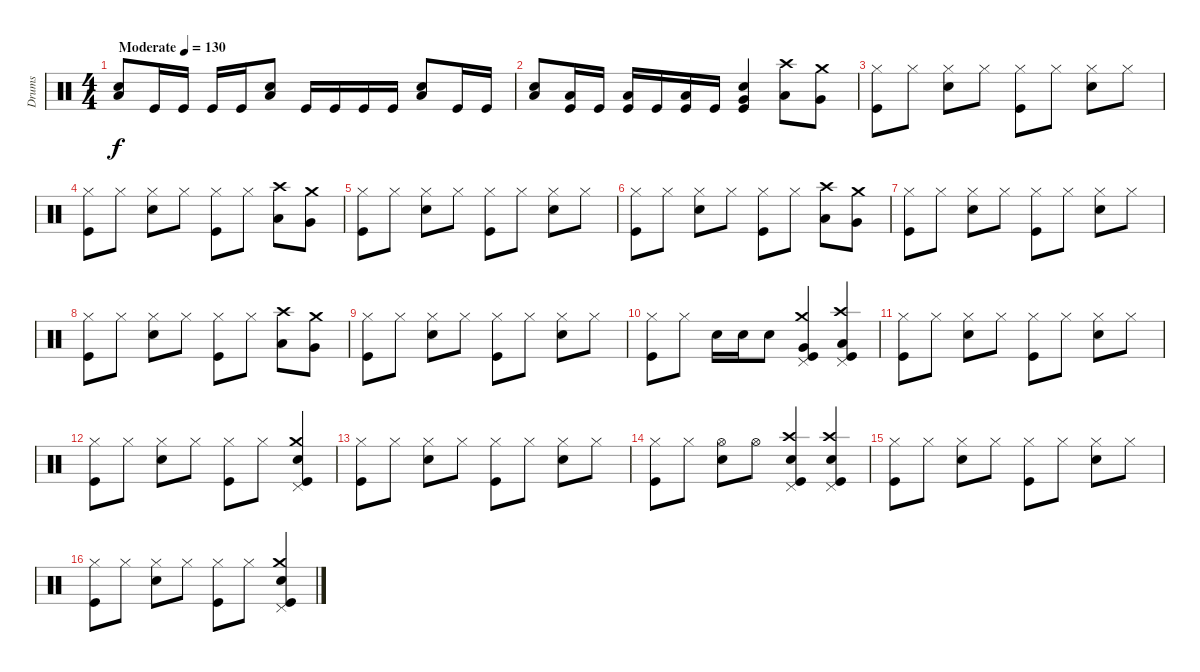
\track ("Drums" "Drums") {instrument percussion}
\staff {score}
\articulation defaults
\ts (4 4)
\tempo (130 "Moderate")
\clef neutral
\ks c
("Electric Snare (hit)" "Low Floor Tom (hit)").8{dy f} "Kick (hit)".16 "Kick (hit)".16 "Kick (hit)".16 "Kick (hit)".16 ("Electric Snare (hit)" "Low Floor Tom (hit)").8 "Kick (hit)".16 "Kick (hit)".16 "Kick (hit)".16 "Kick (hit)".16 ("Electric Snare (hit)" "Low Floor Tom (hit)").8 "Kick (hit)".16 "Kick (hit)".16 |
("Electric Snare (hit)" "Low Floor Tom (hit)").8 ("Low Floor Tom (hit)" "Kick (hit)").16 "Kick (hit)".16 ("Low Floor Tom (hit)" "Kick (hit)").16 "Kick (hit)".16 ("Low Floor Tom (hit)" "Kick (hit)").16 "Kick (hit)".16 ("Electric Snare (hit)" "Very Low Tom (hit)" "Kick (hit)").4 ("Crash high (hit)" "Low Floor Tom (hit)").8 ("Crash medium (hit)" "Very Low Tom (hit)").8 |
("Hi-Hat (closed)" "Kick (hit)").8 "Hi-Hat (closed)".8 ("Hi-Hat (closed)" "Electric Snare (hit)").8 "Hi-Hat (closed)".8 ("Hi-Hat (closed)" "Kick (hit)").8 "Hi-Hat (closed)".8 ("Hi-Hat (closed)" "Electric Snare (hit)").8 "Hi-Hat (closed)".8 |
("Hi-Hat (closed)" "Kick (hit)").8 "Hi-Hat (closed)".8 ("Hi-Hat (closed)" "Electric Snare (hit)").8 "Hi-Hat (closed)".8 ("Hi-Hat (closed)" "Kick (hit)").8 "Hi-Hat (closed)".8 ("Crash high (hit)" "Low Floor Tom (hit)").8 ("Crash medium (hit)" "Very Low Tom (hit)").8 |
("Hi-Hat (closed)" "Kick (hit)").8 "Hi-Hat (closed)".8 ("Hi-Hat (closed)" "Electric Snare (hit)").8 "Hi-Hat (closed)".8 ("Hi-Hat (closed)" "Kick (hit)").8 "Hi-Hat (closed)".8 ("Hi-Hat (closed)" "Electric Snare (hit)").8 "Hi-Hat (closed)".8 |
("Hi-Hat (closed)" "Kick (hit)").8 "Hi-Hat (closed)".8 ("Hi-Hat (closed)" "Electric Snare (hit)").8 "Hi-Hat (closed)".8 ("Hi-Hat (closed)" "Kick (hit)").8 "Hi-Hat (closed)".8 ("Crash high (hit)" "Low Floor Tom (hit)").8 ("Crash medium (hit)" "Very Low Tom (hit)").8 |
("Hi-Hat (closed)" "Kick (hit)").8 "Hi-Hat (closed)".8 ("Hi-Hat (closed)" "Electric Snare (hit)").8 "Hi-Hat (closed)".8 ("Hi-Hat (closed)" "Kick (hit)").8 "Hi-Hat (closed)".8 ("Hi-Hat (closed)" "Electric Snare (hit)").8 "Hi-Hat (closed)".8 |
("Hi-Hat (closed)" "Kick (hit)").8 "Hi-Hat (closed)".8 ("Hi-Hat (closed)" "Electric Snare (hit)").8 "Hi-Hat (closed)".8 ("Hi-Hat (closed)" "Kick (hit)").8 "Hi-Hat (closed)".8 ("Crash high (hit)" "Low Floor Tom (hit)").8 ("Crash medium (hit)" "Very Low Tom (hit)").8 |
("Hi-Hat (closed)" "Kick (hit)").8 "Hi-Hat (closed)".8 ("Hi-Hat (closed)" "Electric Snare (hit)").8 "Hi-Hat (closed)".8 ("Hi-Hat (closed)" "Kick (hit)").8 "Hi-Hat (closed)".8 ("Hi-Hat (closed)" "Electric Snare (hit)").8 "Hi-Hat (closed)".8 |
("Hi-Hat (closed)" "Kick (hit)").8 "Hi-Hat (closed)".8 "Electric Snare (hit)".16 "Electric Snare (hit)".16 "Electric Snare (hit)".8 ("Crash medium (hit)" "Pedal Hi-Hat (hit)" "Very Low Tom (hit)" "Kick (hit)").4 ("Crash high (hit)" "Pedal Hi-Hat (hit)" "Low Floor Tom (hit)" "Kick (hit)").4 |
("Hi-Hat (closed)" "Kick (hit)").8 "Hi-Hat (closed)".8 ("Hi-Hat (closed)" "Electric Snare (hit)").8 "Hi-Hat (closed)".8 ("Hi-Hat (closed)" "Kick (hit)").8 "Hi-Hat (closed)".8 ("Hi-Hat (closed)" "Electric Snare (hit)").8 "Hi-Hat (closed)".8 |
("Hi-Hat (closed)" "Kick (hit)").8 "Hi-Hat (closed)".8 ("Hi-Hat (closed)" "Electric Snare (hit)").8 "Hi-Hat (closed)".8 ("Hi-Hat (closed)" "Kick (hit)").8 "Hi-Hat (closed)".8 ("Crash medium (hit)" "Pedal Hi-Hat (hit)" "Electric Snare (hit)" "Kick (hit)").4 |
("Hi-Hat (closed)" "Kick (hit)").8 "Hi-Hat (closed)".8 ("Hi-Hat (closed)" "Electric Snare (hit)").8 "Hi-Hat (closed)".8 ("Hi-Hat (closed)" "Kick (hit)").8 "Hi-Hat (closed)".8 ("Hi-Hat (closed)" "Electric Snare (hit)").8 "Hi-Hat (closed)".8 |
("Hi-Hat (closed)" "Kick (hit)").8 "Hi-Hat (closed)".8 ("Hi-Hat (open)" "Electric Snare (hit)").8 "Hi-Hat (open)".8 ("Crash high (hit)" "Pedal Hi-Hat (hit)" "Electric Snare (hit)" "Kick (hit)").4 ("Crash high (hit)" "Pedal Hi-Hat (hit)" "Electric Snare (hit)" "Kick (hit)").4 |
("Hi-Hat (closed)" "Kick (hit)").8 "Hi-Hat (closed)".8 ("Hi-Hat (closed)" "Electric Snare (hit)").8 "Hi-Hat (closed)".8 ("Hi-Hat (closed)" "Kick (hit)").8 "Hi-Hat (closed)".8 ("Hi-Hat (closed)" "Electric Snare (hit)").8 "Hi-Hat (closed)".8 |
("Hi-Hat (closed)" "Kick (hit)").8 "Hi-Hat (closed)".8 ("Hi-Hat (closed)" "Electric Snare (hit)").8 "Hi-Hat (closed)".8 ("Hi-Hat (closed)" "Kick (hit)").8 "Hi-Hat (closed)".8 ("Crash medium (hit)" "Pedal Hi-Hat (hit)" "Electric Snare (hit)" "Kick (hit)").4
